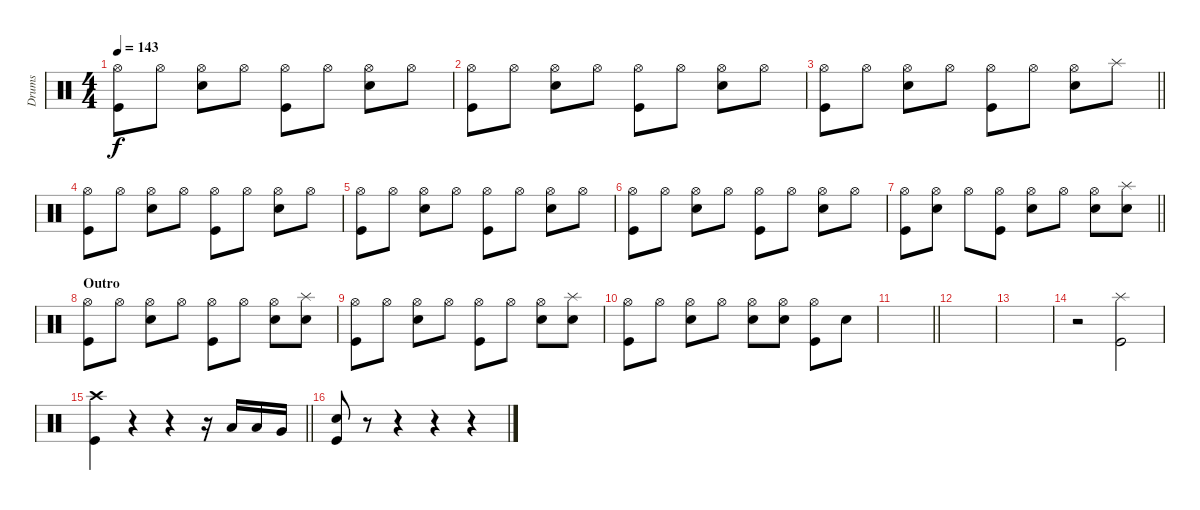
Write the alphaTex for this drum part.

\track ("Drums" "Drums") {instrument percussion}
\staff
\articulation defaults
\ts (4 4)
\tempo 143
\clef neutral
\ks c
("Hi-Hat (open)" "Kick (hit)").8{dy f} "Hi-Hat (open)".8 ("Hi-Hat (open)" "Snare (hit) 2").8 "Hi-Hat (open)".8 ("Hi-Hat (open)" "Kick (hit)").8 "Hi-Hat (open)".8 ("Hi-Hat (open)" "Snare (hit) 2").8 "Hi-Hat (open)".8 |
("Hi-Hat (open)" "Kick (hit)").8 "Hi-Hat (open)".8 ("Hi-Hat (open)" "Snare (hit) 2").8 "Hi-Hat (open)".8 ("Hi-Hat (open)" "Kick (hit)").8 "Hi-Hat (open)".8 ("Hi-Hat (open)" "Snare (hit) 2").8 "Hi-Hat (open)".8 |
\barLineRight lightlight
("Hi-Hat (open)" "Kick (hit)").8 "Hi-Hat (open)".8 ("Hi-Hat (open)" "Snare (hit) 2").8 "Hi-Hat (open)".8 ("Hi-Hat (open)" "Kick (hit)").8 "Hi-Hat (open)".8 ("Hi-Hat (open)" "Snare (hit) 2").8 "Splash (hit)".8 |
("Hi-Hat (open)" "Kick (hit)").8 "Hi-Hat (open)".8 ("Hi-Hat (open)" "Snare (hit) 2").8 "Hi-Hat (open)".8 ("Hi-Hat (open)" "Kick (hit)").8 "Hi-Hat (open)".8 ("Hi-Hat (open)" "Snare (hit) 2").8 "Hi-Hat (open)".8 |
("Hi-Hat (open)" "Kick (hit)").8 "Hi-Hat (open)".8 ("Hi-Hat (open)" "Snare (hit) 2").8 "Hi-Hat (open)".8 ("Hi-Hat (open)" "Kick (hit)").8 "Hi-Hat (open)".8 ("Hi-Hat (open)" "Snare (hit) 2").8 "Hi-Hat (open)".8 |
("Hi-Hat (open)" "Kick (hit)").8 "Hi-Hat (open)".8 ("Hi-Hat (open)" "Snare (hit) 2").8 "Hi-Hat (open)".8 ("Hi-Hat (open)" "Kick (hit)").8 "Hi-Hat (open)".8 ("Hi-Hat (open)" "Snare (hit) 2").8 "Hi-Hat (open)".8 |
\barLineRight lightlight
("Hi-Hat (open)" "Kick (hit)").8 ("Hi-Hat (open)" "Snare (hit) 2").8 "Hi-Hat (open)".8 ("Hi-Hat (open)" "Kick (hit)").8 ("Hi-Hat (open)" "Snare (hit) 2").8 "Hi-Hat (open)".8 ("Hi-Hat (open)" "Snare (hit) 2").8 ("Splash (hit)" "Snare (hit) 2").8 |
\section ("" "Outro")
("Hi-Hat (open)" "Kick (hit)").8 "Hi-Hat (open)".8 ("Hi-Hat (open)" "Snare (hit) 2").8 "Hi-Hat (open)".8 ("Hi-Hat (open)" "Kick (hit)").8 "Hi-Hat (open)".8 ("Hi-Hat (open)" "Snare (hit) 2").8 ("Splash (hit)" "Snare (hit) 2").8 |
("Hi-Hat (open)" "Kick (hit)").8 "Hi-Hat (open)".8 ("Hi-Hat (open)" "Snare (hit) 2").8 "Hi-Hat (open)".8 ("Hi-Hat (open)" "Kick (hit)").8 "Hi-Hat (open)".8 ("Hi-Hat (open)" "Snare (hit) 2").8 ("Splash (hit)" "Snare (hit) 2").8 |
("Hi-Hat (open)" "Kick (hit)").8 "Hi-Hat (open)".8 ("Hi-Hat (open)" "Snare (hit) 2").8 "Hi-Hat (open)".8 ("Hi-Hat (open)" "Snare (hit) 2").8 ("Hi-Hat (open)" "Snare (hit) 2").8 ("Hi-Hat (open)" "Kick (hit)").8 "Snare (hit) 2".8 |
\barLineRight lightlight
|
|
|
r.2 ("Splash (hit)" "Kick (hit)").2 |
\barLineRight lightlight
("Crash high (hit)" "Kick (hit)").4 r.4 r.4 r.16 "Low Floor Tom (hit)".16 "Low Floor Tom (hit)".16 "Very Low Tom (hit)".16 |
("Snare (hit) 2" "Kick (hit)").8 r.8 r.4 r.4 r.4
